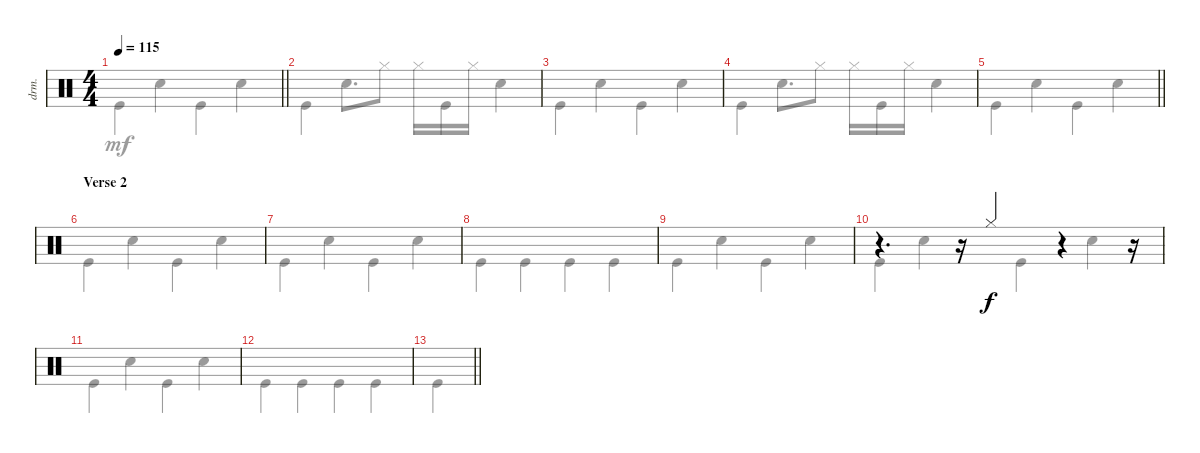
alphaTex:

\defaultSystemsLayout 4
\bracketExtendMode groupsimilarinstruments
\otherSystemsTrackNameOrientation horizontal
\chordDiagramsInScore
\track ("Drumkit" "drm.") {instrument percussion}
\staff {score}
\articulation defaults
\voice
\ts (4 4)
\tempo 115
\clef neutral
\barLineRight lightlight
\ks c
|
|
|
|
\barLineRight lightlight
|
\section ("" "Verse 2")
|
|
|
|
r.4{d} r.16 "Hi-Hat (closed)".4 r.4 r.16 |
|
|
\barLineRight lightlight
|
|
|
\voice
\clef neutral
\ottava regular
\simile none
\barLineRight lightlight
\ks c "Kick (hit)".4{dy mf} "Snare (hit) 2".4 "Kick (hit)".4 "Snare (hit) 2".4
|
"Kick (hit)".4 "Snare (hit) 2".8{d} "Hi-Hat (closed)".8 "Hi-Hat (closed)".16 "Kick (hit)".16 "Hi-Hat (closed)".16 "Snare (hit) 2".4 |
"Kick (hit)".4 "Snare (hit) 2".4 "Kick (hit)".4 "Snare (hit) 2".4 |
"Kick (hit)".4 "Snare (hit) 2".8{d} "Hi-Hat (closed)".8 "Hi-Hat (closed)".16 "Kick (hit)".16 "Hi-Hat (closed)".16 "Snare (hit) 2".4 |
\barLineRight lightlight "Kick (hit)".4 "Snare (hit) 2".4 "Kick (hit)".4 "Snare (hit) 2".4
|
"Kick (hit)".4 "Snare (hit) 2".4 "Kick (hit)".4 "Snare (hit) 2".4 |
"Kick (hit)".4 "Snare (hit) 2".4 "Kick (hit)".4 "Snare (hit) 2".4 |
"Kick (hit)".4 "Kick (hit)".4 "Kick (hit)".4 "Kick (hit)".4 |
"Kick (hit)".4 "Snare (hit) 2".4 "Kick (hit)".4 "Snare (hit) 2".4 |
"Kick (hit)".4 "Snare (hit) 2".4 "Kick (hit)".4 "Snare (hit) 2".4 |
"Kick (hit)".4 "Snare (hit) 2".4 "Kick (hit)".4 "Snare (hit) 2".4 |
"Kick (hit)".4 "Kick (hit)".4 "Kick (hit)".4 "Kick (hit)".4 |
\barLineRight lightlight "Kick (hit)".4
|
|
|
